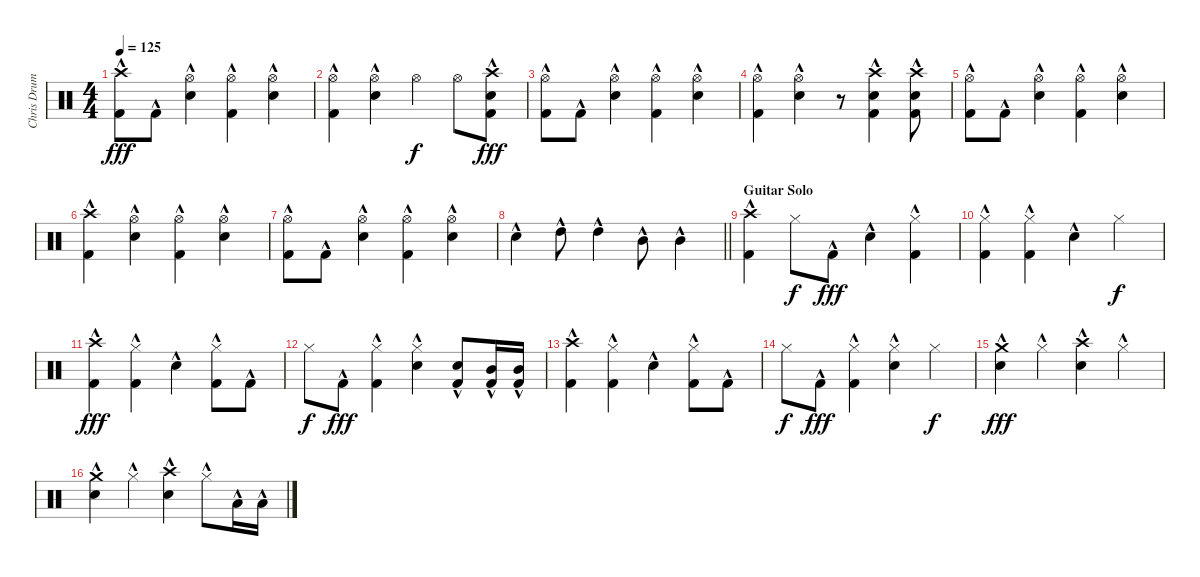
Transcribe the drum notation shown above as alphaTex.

\track ("Chris Drums" "Chris Drum") {instrument percussion}
\staff {score}
\articulation defaults
\ts (4 4)
\tempo 125
\clef neutral
\ks c
("Crash high (hit)" "Kick (hit) 2"{hac}).8{dy fff} "Kick (hit) 2"{hac}.8 ("Hi-Hat (open)" "Snare (hit) 2"{hac}).4 ("Hi-Hat (open)" "Kick (hit) 2"{hac}).4 ("Hi-Hat (open)" "Snare (hit) 2"{hac}).4 |
("Hi-Hat (open)" "Kick (hit) 2"{hac}).4 ("Hi-Hat (open)" "Snare (hit) 2"{hac}).4 "Hi-Hat (open)".4{dy f} "Hi-Hat (open)".8 ("Crash high (hit)" "Snare (hit) 2"{hac} "Kick (hit) 2"{hac}).8{dy fff} |
("Hi-Hat (open)" "Kick (hit) 2"{hac}).8 "Kick (hit) 2"{hac}.8 ("Hi-Hat (open)" "Snare (hit) 2"{hac}).4 ("Hi-Hat (open)" "Kick (hit) 2"{hac}).4 ("Hi-Hat (open)" "Snare (hit) 2"{hac}).4 |
("Hi-Hat (open)" "Kick (hit) 2"{hac}).4 ("Hi-Hat (open)" "Snare (hit) 2"{hac}).4 r.8 ("Crash high (hit)" "Snare (hit) 2"{hac} "Kick (hit) 2"{hac}).4 ("Crash high (hit)" "Snare (hit) 2"{hac} "Kick (hit) 2"{hac}).8 |
("Hi-Hat (open)" "Kick (hit) 2"{hac}).8 "Kick (hit) 2"{hac}.8 ("Hi-Hat (open)" "Snare (hit) 2"{hac}).4 ("Hi-Hat (open)" "Kick (hit) 2"{hac}).4 ("Hi-Hat (open)" "Snare (hit) 2"{hac}).4 |
("Crash high (hit)" "Kick (hit) 2"{hac}).4 ("Hi-Hat (open)" "Snare (hit) 2"{hac}).4 ("Hi-Hat (open)" "Kick (hit) 2"{hac}).4 ("Hi-Hat (open)" "Snare (hit) 2"{hac}).4 |
("Hi-Hat (open)" "Kick (hit) 2"{hac}).8 "Kick (hit) 2"{hac}.8 ("Hi-Hat (open)" "Snare (hit) 2"{hac}).4 ("Hi-Hat (open)" "Kick (hit) 2"{hac}).4 ("Hi-Hat (open)" "Snare (hit) 2"{hac}).4 |
\barLineRight lightlight "Snare (hit) 2"{hac}.4 "High Tom (hit)"{hac}.8 "High Tom (hit)"{hac}.4 "Mid Tom (hit)"{hac}.8 "Mid Tom (hit)"{hac}.4
|
\section ("" "Guitar Solo")
("Crash high (hit)" "Kick (hit) 2"{hac}).4 "Hi-Hat (closed)".8{dy f} "Kick (hit) 2"{hac}.8{dy fff} "Snare (hit) 2"{hac}.4 ("Hi-Hat (closed)" "Kick (hit) 2"{hac}).4 |
("Hi-Hat (closed)" "Kick (hit) 2"{hac}).4 ("Hi-Hat (closed)" "Kick (hit) 2"{hac}).4 "Snare (hit) 2"{hac}.4 "Hi-Hat (closed)".4{dy f} |
("Crash high (hit)" "Kick (hit) 2"{hac}).4{dy fff} ("Hi-Hat (closed)" "Kick (hit) 2"{hac}).4 "Snare (hit) 2"{hac}.4 ("Hi-Hat (closed)" "Kick (hit) 2"{hac}).8 "Kick (hit) 2"{hac}.8 |
"Hi-Hat (closed)".8{dy f} "Kick (hit) 2"{hac}.8{dy fff} ("Hi-Hat (closed)" "Kick (hit) 2"{hac}).4 ("Hi-Hat (closed)" "Snare (hit) 2"{hac}).4 ("Snare (hit) 2"{hac} "Kick (hit) 2"{hac}).8 ("Mid Tom (hit)"{hac} "Kick (hit) 2"{hac}).16 ("Mid Tom (hit)"{hac} "Kick (hit) 2"{hac}).16 |
("Crash high (hit)" "Kick (hit) 2"{hac}).4 ("Hi-Hat (closed)" "Kick (hit) 2"{hac}).4 "Snare (hit) 2"{hac}.4 ("Hi-Hat (closed)" "Kick (hit) 2"{hac}).8 "Kick (hit) 2"{hac}.8 |
"Hi-Hat (closed)".8{dy f} "Kick (hit) 2"{hac}.8{dy fff} ("Hi-Hat (closed)" "Kick (hit) 2"{hac}).4 ("Hi-Hat (closed)" "Snare (hit) 2"{hac}).4 "Hi-Hat (closed)".4{dy f} |
("Crash medium (hit)"{hac} "Snare (hit) 2"{hac}).4{dy fff} "Hi-Hat (closed)"{hac}.4 ("Crash high (hit)"{hac} "Snare (hit) 2"{hac}).4 "Hi-Hat (closed)"{hac}.4 |
("Crash medium (hit)"{hac} "Snare (hit) 2"{hac}).4 "Hi-Hat (closed)"{hac}.4 ("Crash high (hit)"{hac} "Snare (hit) 2"{hac}).4 "Hi-Hat (closed)"{hac}.8 "Low Floor Tom (hit)"{hac}.16 "Low Floor Tom (hit)"{hac}.16
